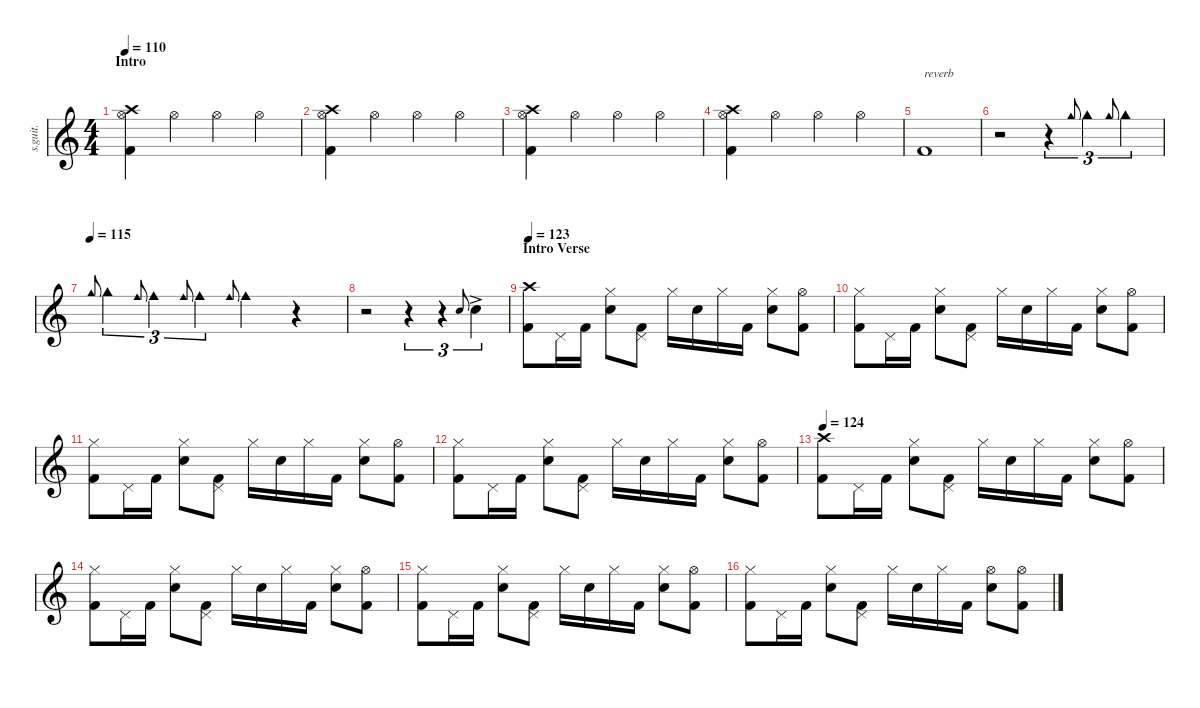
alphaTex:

\defaultSystemsLayout 4
\hideDynamics
\bracketExtendMode nobrackets
\track ("Brad Wilk - Drums" "s.guit.") {instrument percussion}
\staff {score}
\articulation defaults
\ts (4 4)
\beaming (8 2 2 2 2)
\section ("" "Intro")
\tempo 110
\clef g2
\ks c
("Crash high (hit)" "Hi-Hat (open)" "Kick (hit) 2").4{lyrics (0 "") lyrics (1 "") lyrics (2 "") lyrics (3 "") lyrics (4 "") dy f} "Hi-Hat (open)".4{lyrics (0 "") lyrics (1 "") lyrics (2 "") lyrics (3 "") lyrics (4 "")} "Hi-Hat (open)".4{lyrics (0 "") lyrics (1 "") lyrics (2 "") lyrics (3 "") lyrics (4 "")} "Hi-Hat (open)".4{lyrics (0 "") lyrics (1 "") lyrics (2 "") lyrics (3 "") lyrics (4 "")} |
("Crash high (hit)" "Hi-Hat (open)" "Kick (hit) 2").4{lyrics (0 "") lyrics (1 "") lyrics (2 "") lyrics (3 "") lyrics (4 "")} "Hi-Hat (open)".4{lyrics (0 "") lyrics (1 "") lyrics (2 "") lyrics (3 "") lyrics (4 "")} "Hi-Hat (open)".4{lyrics (0 "") lyrics (1 "") lyrics (2 "") lyrics (3 "") lyrics (4 "")} "Hi-Hat (open)".4{lyrics (0 "") lyrics (1 "") lyrics (2 "") lyrics (3 "") lyrics (4 "")} |
("Crash high (hit)" "Hi-Hat (open)" "Kick (hit) 2").4{lyrics (0 "") lyrics (1 "") lyrics (2 "") lyrics (3 "") lyrics (4 "")} "Hi-Hat (open)".4{lyrics (0 "") lyrics (1 "") lyrics (2 "") lyrics (3 "") lyrics (4 "")} "Hi-Hat (open)".4{lyrics (0 "") lyrics (1 "") lyrics (2 "") lyrics (3 "") lyrics (4 "")} "Hi-Hat (open)".4{lyrics (0 "") lyrics (1 "") lyrics (2 "") lyrics (3 "") lyrics (4 "")} |
("Crash high (hit)" "Hi-Hat (open)" "Kick (hit) 2").4{lyrics (0 "") lyrics (1 "") lyrics (2 "") lyrics (3 "") lyrics (4 "")} "Hi-Hat (open)".4{lyrics (0 "") lyrics (1 "") lyrics (2 "") lyrics (3 "") lyrics (4 "")} "Hi-Hat (open)".4{lyrics (0 "") lyrics (1 "") lyrics (2 "") lyrics (3 "") lyrics (4 "")} "Hi-Hat (open)".4{lyrics (0 "") lyrics (1 "") lyrics (2 "") lyrics (3 "") lyrics (4 "")} |
"Kick (hit) 2".1{txt "reverb" lyrics (0 "") lyrics (1 "") lyrics (2 "") lyrics (3 "") lyrics (4 "") dy fff} |
r.2 r.4{tu (3 2)} "Cowbell high (hit)".8{tu (3 2) lyrics (0 "") lyrics (1 "") lyrics (2 "") lyrics (3 "") lyrics (4 "") gr onbeat} "Cowbell high (hit)".4{tu (3 2) lyrics (0 "") lyrics (1 "") lyrics (2 "") lyrics (3 "") lyrics (4 "")} "Cowbell high (hit)".8{tu (3 2) lyrics (0 "") lyrics (1 "") lyrics (2 "") lyrics (3 "") lyrics (4 "") gr onbeat} "Cowbell high (hit)".4{tu (3 2) lyrics (0 "") lyrics (1 "") lyrics (2 "") lyrics (3 "") lyrics (4 "")} |
\tempo (115)
"Cowbell high (hit)".8{tu (3 2) lyrics (0 "") lyrics (1 "") lyrics (2 "") lyrics (3 "") lyrics (4 "") gr onbeat} "Cowbell high (hit)".4{tu (3 2) lyrics (0 "") lyrics (1 "") lyrics (2 "") lyrics (3 "") lyrics (4 "")} "Cowbell medium (hit)".8{tu (3 2) lyrics (0 "") lyrics (1 "") lyrics (2 "") lyrics (3 "") lyrics (4 "") gr onbeat} "Cowbell medium (hit)".4{tu (3 2) lyrics (0 "") lyrics (1 "") lyrics (2 "") lyrics (3 "") lyrics (4 "")} "Cowbell medium (hit)".8{tu (3 2) lyrics (0 "") lyrics (1 "") lyrics (2 "") lyrics (3 "") lyrics (4 "") gr onbeat} "Cowbell medium (hit)".4{tu (3 2) lyrics (0 "") lyrics (1 "") lyrics (2 "") lyrics (3 "") lyrics (4 "")} "Cowbell medium (hit)".8{lyrics (0 "") lyrics (1 "") lyrics (2 "") lyrics (3 "") lyrics (4 "") gr onbeat} "Cowbell medium (hit)".4{lyrics (0 "") lyrics (1 "") lyrics (2 "") lyrics (3 "") lyrics (4 "")} r.4 |
r.2 r.4{tu (3 2)} r.4{tu (3 2)} "Snare (hit) 2".8{tu (3 2) lyrics (0 "") lyrics (1 "") lyrics (2 "") lyrics (3 "") lyrics (4 "") gr onbeat} "Snare (hit) 2"{ac}.4{tu (3 2) lyrics (0 "") lyrics (1 "") lyrics (2 "") lyrics (3 "") lyrics (4 "")} |
\section ("" "Intro Verse")
\tempo 123
("Crash high (hit)" "Kick (hit) 2").8{lyrics (0 "") lyrics (1 "") lyrics (2 "") lyrics (3 "") lyrics (4 "")} "Pedal Hi-Hat (hit)".16{lyrics (0 "") lyrics (1 "") lyrics (2 "") lyrics (3 "") lyrics (4 "")} "Kick (hit) 2".16{lyrics (0 "") lyrics (1 "") lyrics (2 "") lyrics (3 "") lyrics (4 "")} ("Hi-Hat (closed)" "Snare (hit) 2").8{lyrics (0 "") lyrics (1 "") lyrics (2 "") lyrics (3 "") lyrics (4 "")} ("Kick (hit) 2" "Pedal Hi-Hat (hit)").8{lyrics (0 "") lyrics (1 "") lyrics (2 "") lyrics (3 "") lyrics (4 "")} "Hi-Hat (closed)".16{lyrics (0 "") lyrics (1 "") lyrics (2 "") lyrics (3 "") lyrics (4 "")} "Snare (hit) 2".16{lyrics (0 "") lyrics (1 "") lyrics (2 "") lyrics (3 "") lyrics (4 "")} "Hi-Hat (closed)".16{lyrics (0 "") lyrics (1 "") lyrics (2 "") lyrics (3 "") lyrics (4 "")} "Kick (hit) 2".16{lyrics (0 "") lyrics (1 "") lyrics (2 "") lyrics (3 "") lyrics (4 "")} ("Hi-Hat (closed)" "Snare (hit) 2").8{lyrics (0 "") lyrics (1 "") lyrics (2 "") lyrics (3 "") lyrics (4 "")} ("Hi-Hat (open)" "Kick (hit) 2").8{lyrics (0 "") lyrics (1 "") lyrics (2 "") lyrics (3 "") lyrics (4 "")} |
("Hi-Hat (closed)" "Kick (hit) 2").8{lyrics (0 "") lyrics (1 "") lyrics (2 "") lyrics (3 "") lyrics (4 "")} "Pedal Hi-Hat (hit)".16{lyrics (0 "") lyrics (1 "") lyrics (2 "") lyrics (3 "") lyrics (4 "")} "Kick (hit) 2".16{lyrics (0 "") lyrics (1 "") lyrics (2 "") lyrics (3 "") lyrics (4 "")} ("Hi-Hat (closed)" "Snare (hit) 2").8{lyrics (0 "") lyrics (1 "") lyrics (2 "") lyrics (3 "") lyrics (4 "")} ("Kick (hit) 2" "Pedal Hi-Hat (hit)").8{lyrics (0 "") lyrics (1 "") lyrics (2 "") lyrics (3 "") lyrics (4 "")} "Hi-Hat (closed)".16{lyrics (0 "") lyrics (1 "") lyrics (2 "") lyrics (3 "") lyrics (4 "")} "Snare (hit) 2".16{lyrics (0 "") lyrics (1 "") lyrics (2 "") lyrics (3 "") lyrics (4 "")} "Hi-Hat (closed)".16{lyrics (0 "") lyrics (1 "") lyrics (2 "") lyrics (3 "") lyrics (4 "")} "Kick (hit) 2".16{lyrics (0 "") lyrics (1 "") lyrics (2 "") lyrics (3 "") lyrics (4 "")} ("Hi-Hat (closed)" "Snare (hit) 2").8{lyrics (0 "") lyrics (1 "") lyrics (2 "") lyrics (3 "") lyrics (4 "")} ("Hi-Hat (open)" "Kick (hit) 2").8{lyrics (0 "") lyrics (1 "") lyrics (2 "") lyrics (3 "") lyrics (4 "")} |
("Hi-Hat (closed)" "Kick (hit) 2").8{lyrics (0 "") lyrics (1 "") lyrics (2 "") lyrics (3 "") lyrics (4 "")} "Pedal Hi-Hat (hit)".16{lyrics (0 "") lyrics (1 "") lyrics (2 "") lyrics (3 "") lyrics (4 "")} "Kick (hit) 2".16{lyrics (0 "") lyrics (1 "") lyrics (2 "") lyrics (3 "") lyrics (4 "")} ("Hi-Hat (closed)" "Snare (hit) 2").8{lyrics (0 "") lyrics (1 "") lyrics (2 "") lyrics (3 "") lyrics (4 "")} ("Kick (hit) 2" "Pedal Hi-Hat (hit)").8{lyrics (0 "") lyrics (1 "") lyrics (2 "") lyrics (3 "") lyrics (4 "")} "Hi-Hat (closed)".16{lyrics (0 "") lyrics (1 "") lyrics (2 "") lyrics (3 "") lyrics (4 "")} "Snare (hit) 2".16{lyrics (0 "") lyrics (1 "") lyrics (2 "") lyrics (3 "") lyrics (4 "")} "Hi-Hat (closed)".16{lyrics (0 "") lyrics (1 "") lyrics (2 "") lyrics (3 "") lyrics (4 "")} "Kick (hit) 2".16{lyrics (0 "") lyrics (1 "") lyrics (2 "") lyrics (3 "") lyrics (4 "")} ("Hi-Hat (closed)" "Snare (hit) 2").8{lyrics (0 "") lyrics (1 "") lyrics (2 "") lyrics (3 "") lyrics (4 "")} ("Hi-Hat (open)" "Kick (hit) 2").8{lyrics (0 "") lyrics (1 "") lyrics (2 "") lyrics (3 "") lyrics (4 "")} |
("Hi-Hat (closed)" "Kick (hit) 2").8{lyrics (0 "") lyrics (1 "") lyrics (2 "") lyrics (3 "") lyrics (4 "")} "Pedal Hi-Hat (hit)".16{lyrics (0 "") lyrics (1 "") lyrics (2 "") lyrics (3 "") lyrics (4 "")} "Kick (hit) 2".16{lyrics (0 "") lyrics (1 "") lyrics (2 "") lyrics (3 "") lyrics (4 "")} ("Hi-Hat (closed)" "Snare (hit) 2").8{lyrics (0 "") lyrics (1 "") lyrics (2 "") lyrics (3 "") lyrics (4 "")} ("Kick (hit) 2" "Pedal Hi-Hat (hit)").8{lyrics (0 "") lyrics (1 "") lyrics (2 "") lyrics (3 "") lyrics (4 "")} "Hi-Hat (closed)".16{lyrics (0 "") lyrics (1 "") lyrics (2 "") lyrics (3 "") lyrics (4 "")} "Snare (hit) 2".16{lyrics (0 "") lyrics (1 "") lyrics (2 "") lyrics (3 "") lyrics (4 "")} "Hi-Hat (closed)".16{lyrics (0 "") lyrics (1 "") lyrics (2 "") lyrics (3 "") lyrics (4 "")} "Kick (hit) 2".16{lyrics (0 "") lyrics (1 "") lyrics (2 "") lyrics (3 "") lyrics (4 "")} ("Hi-Hat (closed)" "Snare (hit) 2").8{lyrics (0 "") lyrics (1 "") lyrics (2 "") lyrics (3 "") lyrics (4 "")} ("Hi-Hat (open)" "Kick (hit) 2").8{lyrics (0 "") lyrics (1 "") lyrics (2 "") lyrics (3 "") lyrics (4 "")} |
\tempo 124
("Crash high (hit)" "Kick (hit) 2").8{lyrics (0 "") lyrics (1 "") lyrics (2 "") lyrics (3 "") lyrics (4 "")} "Pedal Hi-Hat (hit)".16{lyrics (0 "") lyrics (1 "") lyrics (2 "") lyrics (3 "") lyrics (4 "")} "Kick (hit) 2".16{lyrics (0 "") lyrics (1 "") lyrics (2 "") lyrics (3 "") lyrics (4 "")} ("Hi-Hat (closed)" "Snare (hit) 2").8{lyrics (0 "") lyrics (1 "") lyrics (2 "") lyrics (3 "") lyrics (4 "")} ("Kick (hit) 2" "Pedal Hi-Hat (hit)").8{lyrics (0 "") lyrics (1 "") lyrics (2 "") lyrics (3 "") lyrics (4 "")} "Hi-Hat (closed)".16{lyrics (0 "") lyrics (1 "") lyrics (2 "") lyrics (3 "") lyrics (4 "")} "Snare (hit) 2".16{lyrics (0 "") lyrics (1 "") lyrics (2 "") lyrics (3 "") lyrics (4 "")} "Hi-Hat (closed)".16{lyrics (0 "") lyrics (1 "") lyrics (2 "") lyrics (3 "") lyrics (4 "")} "Kick (hit) 2".16{lyrics (0 "") lyrics (1 "") lyrics (2 "") lyrics (3 "") lyrics (4 "")} ("Hi-Hat (closed)" "Snare (hit) 2").8{lyrics (0 "") lyrics (1 "") lyrics (2 "") lyrics (3 "") lyrics (4 "")} ("Hi-Hat (open)" "Kick (hit) 2").8{lyrics (0 "") lyrics (1 "") lyrics (2 "") lyrics (3 "") lyrics (4 "")} |
("Hi-Hat (closed)" "Kick (hit) 2").8{lyrics (0 "") lyrics (1 "") lyrics (2 "") lyrics (3 "") lyrics (4 "")} "Pedal Hi-Hat (hit)".16{lyrics (0 "") lyrics (1 "") lyrics (2 "") lyrics (3 "") lyrics (4 "")} "Kick (hit) 2".16{lyrics (0 "") lyrics (1 "") lyrics (2 "") lyrics (3 "") lyrics (4 "")} ("Hi-Hat (closed)" "Snare (hit) 2").8{lyrics (0 "") lyrics (1 "") lyrics (2 "") lyrics (3 "") lyrics (4 "")} ("Kick (hit) 2" "Pedal Hi-Hat (hit)").8{lyrics (0 "") lyrics (1 "") lyrics (2 "") lyrics (3 "") lyrics (4 "")} "Hi-Hat (closed)".16{lyrics (0 "") lyrics (1 "") lyrics (2 "") lyrics (3 "") lyrics (4 "")} "Snare (hit) 2".16{lyrics (0 "") lyrics (1 "") lyrics (2 "") lyrics (3 "") lyrics (4 "")} "Hi-Hat (closed)".16{lyrics (0 "") lyrics (1 "") lyrics (2 "") lyrics (3 "") lyrics (4 "")} "Kick (hit) 2".16{lyrics (0 "") lyrics (1 "") lyrics (2 "") lyrics (3 "") lyrics (4 "")} ("Hi-Hat (closed)" "Snare (hit) 2").8{lyrics (0 "") lyrics (1 "") lyrics (2 "") lyrics (3 "") lyrics (4 "")} ("Hi-Hat (open)" "Kick (hit) 2").8{lyrics (0 "") lyrics (1 "") lyrics (2 "") lyrics (3 "") lyrics (4 "")} |
("Hi-Hat (closed)" "Kick (hit) 2").8{lyrics (0 "") lyrics (1 "") lyrics (2 "") lyrics (3 "") lyrics (4 "")} "Pedal Hi-Hat (hit)".16{lyrics (0 "") lyrics (1 "") lyrics (2 "") lyrics (3 "") lyrics (4 "")} "Kick (hit) 2".16{lyrics (0 "") lyrics (1 "") lyrics (2 "") lyrics (3 "") lyrics (4 "")} ("Hi-Hat (closed)" "Snare (hit) 2").8{lyrics (0 "") lyrics (1 "") lyrics (2 "") lyrics (3 "") lyrics (4 "")} ("Kick (hit) 2" "Pedal Hi-Hat (hit)").8{lyrics (0 "") lyrics (1 "") lyrics (2 "") lyrics (3 "") lyrics (4 "")} "Hi-Hat (closed)".16{lyrics (0 "") lyrics (1 "") lyrics (2 "") lyrics (3 "") lyrics (4 "")} "Snare (hit) 2".16{lyrics (0 "") lyrics (1 "") lyrics (2 "") lyrics (3 "") lyrics (4 "")} "Hi-Hat (closed)".16{lyrics (0 "") lyrics (1 "") lyrics (2 "") lyrics (3 "") lyrics (4 "")} "Kick (hit) 2".16{lyrics (0 "") lyrics (1 "") lyrics (2 "") lyrics (3 "") lyrics (4 "")} ("Hi-Hat (closed)" "Snare (hit) 2").8{lyrics (0 "") lyrics (1 "") lyrics (2 "") lyrics (3 "") lyrics (4 "")} ("Hi-Hat (open)" "Kick (hit) 2").8{lyrics (0 "") lyrics (1 "") lyrics (2 "") lyrics (3 "") lyrics (4 "")} |
("Hi-Hat (closed)" "Kick (hit) 2").8{lyrics (0 "") lyrics (1 "") lyrics (2 "") lyrics (3 "") lyrics (4 "")} "Pedal Hi-Hat (hit)".16{lyrics (0 "") lyrics (1 "") lyrics (2 "") lyrics (3 "") lyrics (4 "")} "Kick (hit) 2".16{lyrics (0 "") lyrics (1 "") lyrics (2 "") lyrics (3 "") lyrics (4 "")} ("Hi-Hat (closed)" "Snare (hit) 2").8{lyrics (0 "") lyrics (1 "") lyrics (2 "") lyrics (3 "") lyrics (4 "")} ("Kick (hit) 2" "Pedal Hi-Hat (hit)").8{lyrics (0 "") lyrics (1 "") lyrics (2 "") lyrics (3 "") lyrics (4 "")} "Hi-Hat (closed)".16{lyrics (0 "") lyrics (1 "") lyrics (2 "") lyrics (3 "") lyrics (4 "")} "Snare (hit) 2".16{lyrics (0 "") lyrics (1 "") lyrics (2 "") lyrics (3 "") lyrics (4 "")} "Hi-Hat (closed)".16{lyrics (0 "") lyrics (1 "") lyrics (2 "") lyrics (3 "") lyrics (4 "")} "Kick (hit) 2".16{lyrics (0 "") lyrics (1 "") lyrics (2 "") lyrics (3 "") lyrics (4 "")} ("Hi-Hat (open)" "Snare (hit) 2").8{lyrics (0 "") lyrics (1 "") lyrics (2 "") lyrics (3 "") lyrics (4 "")} ("Hi-Hat (open)" "Kick (hit) 2").8{lyrics (0 "") lyrics (1 "") lyrics (2 "") lyrics (3 "") lyrics (4 "")}
